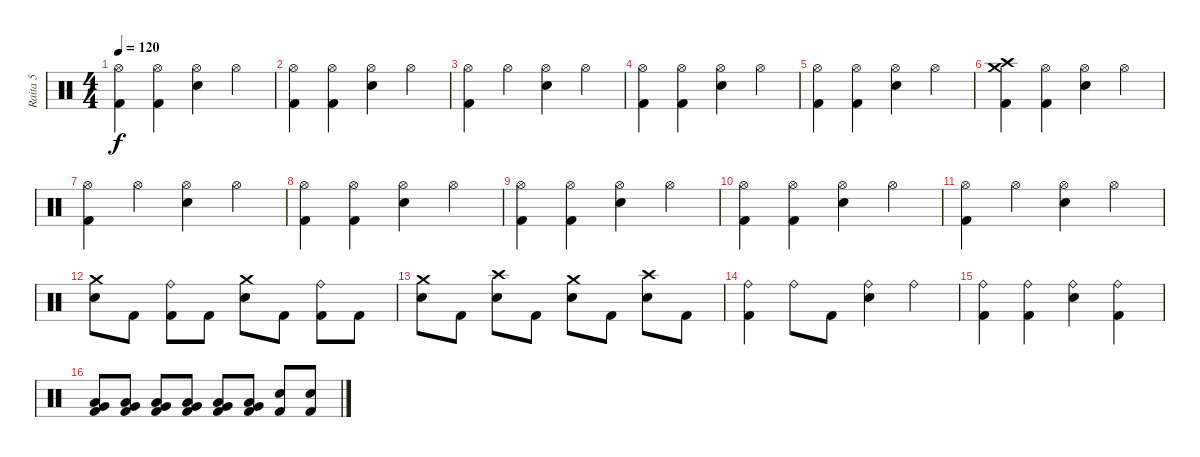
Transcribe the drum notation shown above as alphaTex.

\track ("Raita 5" "Raita 5") {instrument percussion}
\staff {score}
\articulation defaults
\ts (4 4)
\tempo 120
\clef neutral
\ks c
("Hi-Hat (open)" "Kick (hit) 2").4{dy f} ("Hi-Hat (open)" "Kick (hit) 2").4 ("Hi-Hat (open)" "Snare (hit) 2").4 "Hi-Hat (open)".4 |
("Hi-Hat (open)" "Kick (hit) 2").4 ("Hi-Hat (open)" "Kick (hit) 2").4 ("Hi-Hat (open)" "Snare (hit) 2").4 "Hi-Hat (open)".4 |
("Hi-Hat (open)" "Kick (hit) 2").4 "Hi-Hat (open)".4 ("Hi-Hat (open)" "Snare (hit) 2").4 "Hi-Hat (open)".4 |
("Hi-Hat (open)" "Kick (hit) 2").4 ("Hi-Hat (open)" "Kick (hit) 2").4 ("Hi-Hat (open)" "Snare (hit) 2").4 "Hi-Hat (open)".4 |
("Hi-Hat (open)" "Kick (hit) 2").4 ("Hi-Hat (open)" "Kick (hit) 2").4 ("Hi-Hat (open)" "Snare (hit) 2").4 "Hi-Hat (open)".4 |
("Crash medium (hit)" "Crash high (hit)" "Kick (hit) 2").4 ("Hi-Hat (open)" "Kick (hit) 2").4 ("Hi-Hat (open)" "Snare (hit) 2").4 "Hi-Hat (open)".4 |
("Hi-Hat (open)" "Kick (hit) 2").4 "Hi-Hat (open)".4 ("Hi-Hat (open)" "Snare (hit) 2").4 "Hi-Hat (open)".4 |
("Hi-Hat (open)" "Kick (hit) 2").4 ("Hi-Hat (open)" "Kick (hit) 2").4 ("Hi-Hat (open)" "Snare (hit) 2").4 "Hi-Hat (open)".4 |
("Hi-Hat (open)" "Kick (hit) 2").4 ("Hi-Hat (open)" "Kick (hit) 2").4 ("Hi-Hat (open)" "Snare (hit) 2").4 "Hi-Hat (open)".4 |
("Hi-Hat (open)" "Kick (hit) 2").4 ("Hi-Hat (open)" "Kick (hit) 2").4 ("Hi-Hat (open)" "Snare (hit) 2").4 "Hi-Hat (open)".4 |
("Hi-Hat (open)" "Kick (hit) 2").4 "Hi-Hat (open)".4 ("Hi-Hat (open)" "Snare (hit) 2").4 "Hi-Hat (open)".4 |
("Crash medium (hit)" "Snare (hit) 2").8 "Kick (hit) 2".8 ("Ride (bell)" "Kick (hit) 2").8 "Kick (hit) 2".8 ("Crash medium (hit)" "Snare (hit) 2").8 "Kick (hit) 2".8 ("Ride (bell)" "Kick (hit) 2").8 "Kick (hit) 2".8 |
("Crash medium (hit)" "Snare (hit) 2").8 "Kick (hit) 2".8 ("Crash high (hit)" "Snare (hit) 2").8 "Kick (hit) 2".8 ("Crash medium (hit)" "Snare (hit) 2").8 "Kick (hit) 2".8 ("Crash high (hit)" "Snare (hit) 2").8 "Kick (hit) 2".8 |
("Ride (bell)" "Kick (hit) 2").4 "Ride (bell)".8 "Kick (hit) 2".8 ("Ride (bell)" "Snare (hit) 2").4 "Ride (bell)".4 |
("Ride (bell)" "Kick (hit) 2").4 ("Ride (bell)" "Kick (hit) 2").4 ("Ride (bell)" "Snare (hit) 2").4 ("Ride (bell)" "Kick (hit) 2").4 |
("Very Low Tom (hit)" "Low Floor Tom (hit)" "Kick (hit) 2").8 ("Very Low Tom (hit)" "Low Floor Tom (hit)" "Kick (hit) 2").8 ("Very Low Tom (hit)" "Low Floor Tom (hit)" "Kick (hit) 2").8 ("Very Low Tom (hit)" "Low Floor Tom (hit)" "Kick (hit) 2").8 ("Very Low Tom (hit)" "Low Floor Tom (hit)" "Kick (hit) 2").8 ("Very Low Tom (hit)" "Low Floor Tom (hit)" "Kick (hit) 2").8 ("Snare (hit) 2" "Kick (hit) 2").8 ("Snare (hit) 2" "Kick (hit) 2").8
